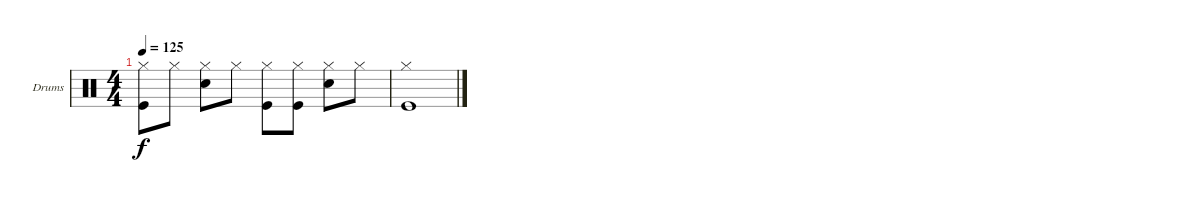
\bracketExtendMode nobrackets
\firstSystemTrackNameOrientation horizontal
\otherSystemsTrackNameOrientation horizontal
\defaultBarNumberDisplay FirstOfSystem
\track ("Drumkit" "Drums") {instrument percussion}
\staff {score}
\articulation defaults
\ts (4 4)
\tempo 125
\clef neutral
\ks c
("Hi-Hat (closed)" "Kick (hit)").8{dy f} "Hi-Hat (closed)".8 ("Hi-Hat (closed)" "Snare (hit) 2").8 "Hi-Hat (closed)".8 ("Hi-Hat (closed)" "Kick (hit)").8 ("Hi-Hat (closed)" "Kick (hit)").8 ("Hi-Hat (closed)" "Snare (hit) 2").8 "Hi-Hat (closed)".8 |
("Hi-Hat (closed)" "Kick (hit)").1
